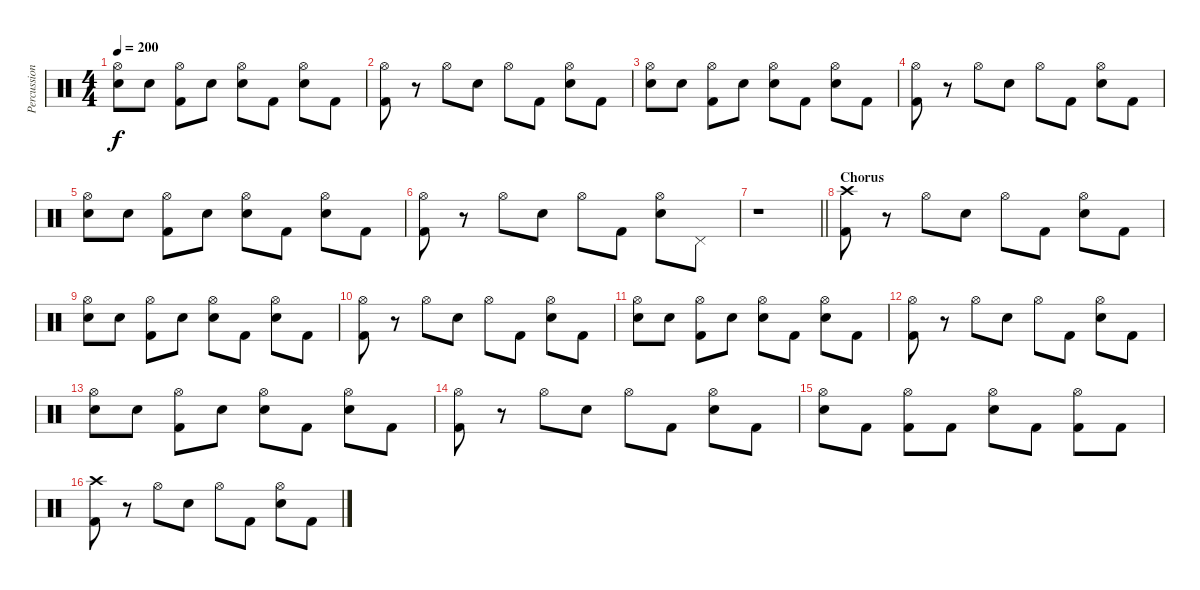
\track ("Percussion" "Percussion") {instrument percussion}
\staff {score}
\articulation defaults
\ts (4 4)
\tempo 200
\clef neutral
\ks c
("Hi-Hat (open)" "Electric Snare (hit)").8{dy f} "Electric Snare (hit)".8 ("Hi-Hat (open)" "Kick (hit) 2").8 "Electric Snare (hit)".8 ("Hi-Hat (open)" "Electric Snare (hit)").8 "Kick (hit) 2".8 ("Hi-Hat (open)" "Electric Snare (hit)").8 "Kick (hit) 2".8 |
("Hi-Hat (open)" "Kick (hit) 2").8 r.8 "Hi-Hat (open)".8 "Electric Snare (hit)".8 "Hi-Hat (open)".8 "Kick (hit) 2".8 ("Hi-Hat (open)" "Electric Snare (hit)").8 "Kick (hit) 2".8 |
("Hi-Hat (open)" "Electric Snare (hit)").8 "Electric Snare (hit)".8 ("Hi-Hat (open)" "Kick (hit) 2").8 "Electric Snare (hit)".8 ("Hi-Hat (open)" "Electric Snare (hit)").8 "Kick (hit) 2".8 ("Hi-Hat (open)" "Electric Snare (hit)").8 "Kick (hit) 2".8 |
("Hi-Hat (open)" "Kick (hit) 2").8 r.8 "Hi-Hat (open)".8 "Electric Snare (hit)".8 "Hi-Hat (open)".8 "Kick (hit) 2".8 ("Hi-Hat (open)" "Electric Snare (hit)").8 "Kick (hit) 2".8 |
("Hi-Hat (open)" "Electric Snare (hit)").8 "Electric Snare (hit)".8 ("Hi-Hat (open)" "Kick (hit) 2").8 "Electric Snare (hit)".8 ("Hi-Hat (open)" "Electric Snare (hit)").8 "Kick (hit) 2".8 ("Hi-Hat (open)" "Electric Snare (hit)").8 "Kick (hit) 2".8 |
("Hi-Hat (open)" "Kick (hit) 2").8 r.8 "Hi-Hat (open)".8 "Electric Snare (hit)".8 "Hi-Hat (open)".8 "Kick (hit) 2".8 ("Hi-Hat (open)" "Electric Snare (hit)").8 "Pedal Hi-Hat (hit)".8 |
\barLineRight lightlight
r.1 |
\section ("" "Chorus")
("Crash high (hit)" "Kick (hit) 2").8 r.8 "Hi-Hat (open)".8 "Electric Snare (hit)".8 "Hi-Hat (open)".8 "Kick (hit) 2".8 ("Hi-Hat (open)" "Electric Snare (hit)").8 "Kick (hit) 2".8 |
("Hi-Hat (open)" "Electric Snare (hit)").8 "Electric Snare (hit)".8 ("Hi-Hat (open)" "Kick (hit) 2").8 "Electric Snare (hit)".8 ("Hi-Hat (open)" "Electric Snare (hit)").8 "Kick (hit) 2".8 ("Hi-Hat (open)" "Electric Snare (hit)").8 "Kick (hit) 2".8 |
("Hi-Hat (open)" "Kick (hit) 2").8 r.8 "Hi-Hat (open)".8 "Electric Snare (hit)".8 "Hi-Hat (open)".8 "Kick (hit) 2".8 ("Hi-Hat (open)" "Electric Snare (hit)").8 "Kick (hit) 2".8 |
("Hi-Hat (open)" "Electric Snare (hit)").8 "Electric Snare (hit)".8 ("Hi-Hat (open)" "Kick (hit) 2").8 "Electric Snare (hit)".8 ("Hi-Hat (open)" "Electric Snare (hit)").8 "Kick (hit) 2".8 ("Hi-Hat (open)" "Electric Snare (hit)").8 "Kick (hit) 2".8 |
("Hi-Hat (open)" "Kick (hit) 2").8 r.8 "Hi-Hat (open)".8 "Electric Snare (hit)".8 "Hi-Hat (open)".8 "Kick (hit) 2".8 ("Hi-Hat (open)" "Electric Snare (hit)").8 "Kick (hit) 2".8 |
("Hi-Hat (open)" "Electric Snare (hit)").8 "Electric Snare (hit)".8 ("Hi-Hat (open)" "Kick (hit) 2").8 "Electric Snare (hit)".8 ("Hi-Hat (open)" "Electric Snare (hit)").8 "Kick (hit) 2".8 ("Hi-Hat (open)" "Electric Snare (hit)").8 "Kick (hit) 2".8 |
("Hi-Hat (open)" "Kick (hit) 2").8 r.8 "Hi-Hat (open)".8 "Electric Snare (hit)".8 "Hi-Hat (open)".8 "Kick (hit) 2".8 ("Hi-Hat (open)" "Electric Snare (hit)").8 "Kick (hit) 2".8 |
("Hi-Hat (open)" "Electric Snare (hit)").8 "Kick (hit) 2".8 ("Hi-Hat (open)" "Kick (hit) 2").8 "Kick (hit) 2".8 ("Hi-Hat (open)" "Electric Snare (hit)").8 "Kick (hit) 2".8 ("Hi-Hat (open)" "Kick (hit) 2").8 "Kick (hit) 2".8 |
("Crash high (hit)" "Kick (hit) 2").8 r.8 "Hi-Hat (open)".8 "Electric Snare (hit)".8 "Hi-Hat (open)".8 "Kick (hit) 2".8 ("Hi-Hat (open)" "Electric Snare (hit)").8 "Kick (hit) 2".8
